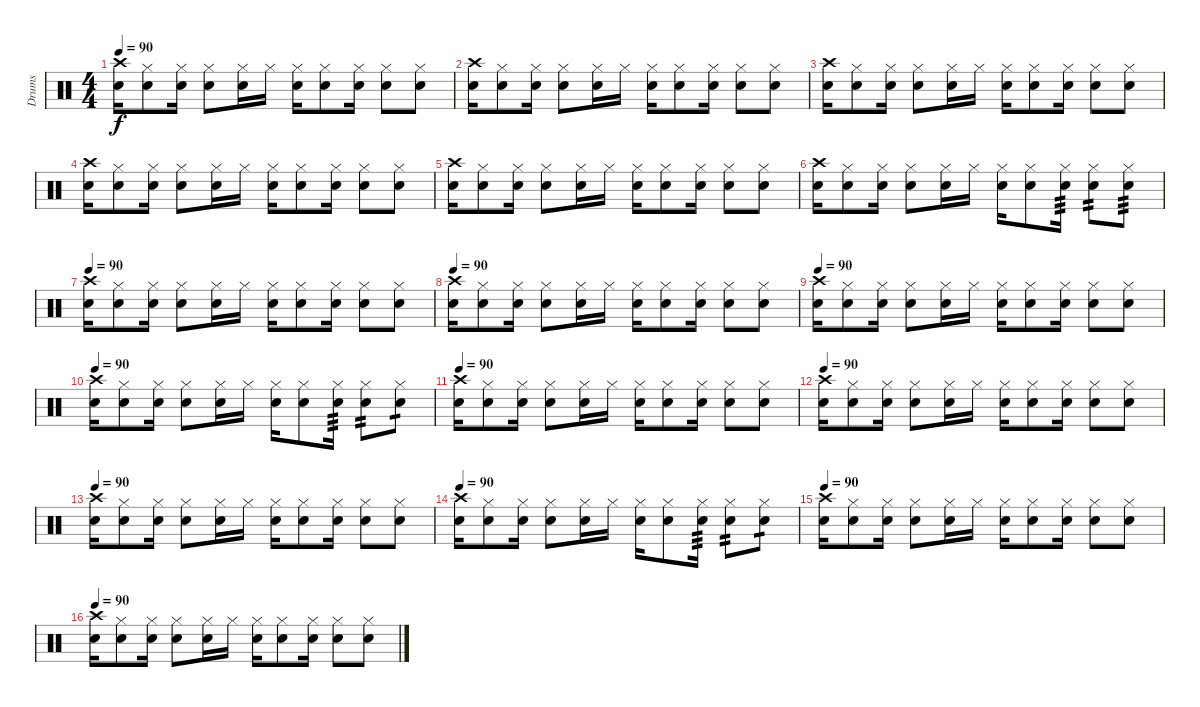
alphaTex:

\track ("Drums" "Drums") {instrument percussion}
\staff {score}
\articulation defaults
\ts (4 4)
\tempo 90
\clef neutral
\ks c
("Crash high (hit)" "Snare (hit) 2").16{dy f} ("Hi-Hat (closed)" "Snare (hit) 2").8 ("Hi-Hat (closed)" "Snare (hit) 2").16 ("Hi-Hat (closed)" "Snare (hit) 2").8 ("Hi-Hat (closed)" "Snare (hit) 2").16 "Hi-Hat (closed)".16 ("Hi-Hat (closed)" "Snare (hit) 2").16 ("Hi-Hat (closed)" "Snare (hit) 2").8 ("Hi-Hat (closed)" "Snare (hit) 2").16 ("Hi-Hat (closed)" "Snare (hit) 2").8 ("Hi-Hat (closed)" "Snare (hit) 2").8 |
("Crash high (hit)" "Snare (hit) 2").16 ("Hi-Hat (closed)" "Snare (hit) 2").8 ("Hi-Hat (closed)" "Snare (hit) 2").16 ("Hi-Hat (closed)" "Snare (hit) 2").8 ("Hi-Hat (closed)" "Snare (hit) 2").16 "Hi-Hat (closed)".16 ("Hi-Hat (closed)" "Snare (hit) 2").16 ("Hi-Hat (closed)" "Snare (hit) 2").8 ("Hi-Hat (closed)" "Snare (hit) 2").16 ("Hi-Hat (closed)" "Snare (hit) 2").8 ("Hi-Hat (closed)" "Snare (hit) 2").8 |
("Crash high (hit)" "Snare (hit) 2").16 ("Hi-Hat (closed)" "Snare (hit) 2").8 ("Hi-Hat (closed)" "Snare (hit) 2").16 ("Hi-Hat (closed)" "Snare (hit) 2").8 ("Hi-Hat (closed)" "Snare (hit) 2").16 "Hi-Hat (closed)".16 ("Hi-Hat (closed)" "Snare (hit) 2").16 ("Hi-Hat (closed)" "Snare (hit) 2").8 ("Hi-Hat (closed)" "Snare (hit) 2").16 ("Hi-Hat (closed)" "Snare (hit) 2").8 ("Hi-Hat (closed)" "Snare (hit) 2").8 |
("Crash high (hit)" "Snare (hit) 2").16 ("Hi-Hat (closed)" "Snare (hit) 2").8 ("Hi-Hat (closed)" "Snare (hit) 2").16 ("Hi-Hat (closed)" "Snare (hit) 2").8 ("Hi-Hat (closed)" "Snare (hit) 2").16 "Hi-Hat (closed)".16 ("Hi-Hat (closed)" "Snare (hit) 2").16 ("Hi-Hat (closed)" "Snare (hit) 2").8 ("Hi-Hat (closed)" "Snare (hit) 2").16 ("Hi-Hat (closed)" "Snare (hit) 2").8 ("Hi-Hat (closed)" "Snare (hit) 2").8 |
("Crash high (hit)" "Snare (hit) 2").16 ("Hi-Hat (closed)" "Snare (hit) 2").8 ("Hi-Hat (closed)" "Snare (hit) 2").16 ("Hi-Hat (closed)" "Snare (hit) 2").8 ("Hi-Hat (closed)" "Snare (hit) 2").16 "Hi-Hat (closed)".16 ("Hi-Hat (closed)" "Snare (hit) 2").16 ("Hi-Hat (closed)" "Snare (hit) 2").8 ("Hi-Hat (closed)" "Snare (hit) 2").16 ("Hi-Hat (closed)" "Snare (hit) 2").8 ("Hi-Hat (closed)" "Snare (hit) 2").8 |
("Crash high (hit)" "Snare (hit) 2").16 ("Hi-Hat (closed)" "Snare (hit) 2").8 ("Hi-Hat (closed)" "Snare (hit) 2").16 ("Hi-Hat (closed)" "Snare (hit) 2").8 ("Hi-Hat (closed)" "Snare (hit) 2").16 "Hi-Hat (closed)".16 ("Hi-Hat (closed)" "Snare (hit) 2").16 ("Hi-Hat (closed)" "Snare (hit) 2").8 ("Hi-Hat (closed)" "Snare (hit) 2").16{tp 3} ("Hi-Hat (closed)" "Snare (hit) 2").8{tp 2} ("Hi-Hat (closed)" "Snare (hit) 2").8{tp 3} |
\tempo 90
("Crash high (hit)" "Snare (hit) 2").16 ("Hi-Hat (closed)" "Snare (hit) 2").8 ("Hi-Hat (closed)" "Snare (hit) 2").16 ("Hi-Hat (closed)" "Snare (hit) 2").8 ("Hi-Hat (closed)" "Snare (hit) 2").16 "Hi-Hat (closed)".16 ("Hi-Hat (closed)" "Snare (hit) 2").16 ("Hi-Hat (closed)" "Snare (hit) 2").8 ("Hi-Hat (closed)" "Snare (hit) 2").16 ("Hi-Hat (closed)" "Snare (hit) 2").8 ("Hi-Hat (closed)" "Snare (hit) 2").8 |
\tempo 90
("Crash high (hit)" "Snare (hit) 2").16 ("Hi-Hat (closed)" "Snare (hit) 2").8 ("Hi-Hat (closed)" "Snare (hit) 2").16 ("Hi-Hat (closed)" "Snare (hit) 2").8 ("Hi-Hat (closed)" "Snare (hit) 2").16 "Hi-Hat (closed)".16 ("Hi-Hat (closed)" "Snare (hit) 2").16 ("Hi-Hat (closed)" "Snare (hit) 2").8 ("Hi-Hat (closed)" "Snare (hit) 2").16 ("Hi-Hat (closed)" "Snare (hit) 2").8 ("Hi-Hat (closed)" "Snare (hit) 2").8 |
\tempo 90
("Crash high (hit)" "Snare (hit) 2").16 ("Hi-Hat (closed)" "Snare (hit) 2").8 ("Hi-Hat (closed)" "Snare (hit) 2").16 ("Hi-Hat (closed)" "Snare (hit) 2").8 ("Hi-Hat (closed)" "Snare (hit) 2").16 "Hi-Hat (closed)".16 ("Hi-Hat (closed)" "Snare (hit) 2").16 ("Hi-Hat (closed)" "Snare (hit) 2").8 ("Hi-Hat (closed)" "Snare (hit) 2").16 ("Hi-Hat (closed)" "Snare (hit) 2").8 ("Hi-Hat (closed)" "Snare (hit) 2").8 |
\tempo 90
("Crash high (hit)" "Snare (hit) 2").16 ("Hi-Hat (closed)" "Snare (hit) 2").8 ("Hi-Hat (closed)" "Snare (hit) 2").16 ("Hi-Hat (closed)" "Snare (hit) 2").8 ("Hi-Hat (closed)" "Snare (hit) 2").16 "Hi-Hat (closed)".16 ("Hi-Hat (closed)" "Snare (hit) 2").16 ("Hi-Hat (closed)" "Snare (hit) 2").8 ("Hi-Hat (closed)" "Snare (hit) 2").16{tp 3} ("Hi-Hat (closed)" "Snare (hit) 2").8{tp 2} ("Hi-Hat (closed)" "Snare (hit) 2").8{tp 1} |
\tempo 90
("Crash high (hit)" "Snare (hit) 2").16 ("Hi-Hat (closed)" "Snare (hit) 2").8 ("Hi-Hat (closed)" "Snare (hit) 2").16 ("Hi-Hat (closed)" "Snare (hit) 2").8 ("Hi-Hat (closed)" "Snare (hit) 2").16 "Hi-Hat (closed)".16 ("Hi-Hat (closed)" "Snare (hit) 2").16 ("Hi-Hat (closed)" "Snare (hit) 2").8 ("Hi-Hat (closed)" "Snare (hit) 2").16 ("Hi-Hat (closed)" "Snare (hit) 2").8 ("Hi-Hat (closed)" "Snare (hit) 2").8 |
\tempo 90
("Crash high (hit)" "Snare (hit) 2").16 ("Hi-Hat (closed)" "Snare (hit) 2").8 ("Hi-Hat (closed)" "Snare (hit) 2").16 ("Hi-Hat (closed)" "Snare (hit) 2").8 ("Hi-Hat (closed)" "Snare (hit) 2").16 "Hi-Hat (closed)".16 ("Hi-Hat (closed)" "Snare (hit) 2").16 ("Hi-Hat (closed)" "Snare (hit) 2").8 ("Hi-Hat (closed)" "Snare (hit) 2").16 ("Hi-Hat (closed)" "Snare (hit) 2").8 ("Hi-Hat (closed)" "Snare (hit) 2").8 |
\tempo 90
("Crash high (hit)" "Snare (hit) 2").16 ("Hi-Hat (closed)" "Snare (hit) 2").8 ("Hi-Hat (closed)" "Snare (hit) 2").16 ("Hi-Hat (closed)" "Snare (hit) 2").8 ("Hi-Hat (closed)" "Snare (hit) 2").16 "Hi-Hat (closed)".16 ("Hi-Hat (closed)" "Snare (hit) 2").16 ("Hi-Hat (closed)" "Snare (hit) 2").8 ("Hi-Hat (closed)" "Snare (hit) 2").16 ("Hi-Hat (closed)" "Snare (hit) 2").8 ("Hi-Hat (closed)" "Snare (hit) 2").8 |
\tempo 90
("Crash high (hit)" "Snare (hit) 2").16 ("Hi-Hat (closed)" "Snare (hit) 2").8 ("Hi-Hat (closed)" "Snare (hit) 2").16 ("Hi-Hat (closed)" "Snare (hit) 2").8 ("Hi-Hat (closed)" "Snare (hit) 2").16 "Hi-Hat (closed)".16 ("Hi-Hat (closed)" "Snare (hit) 2").16 ("Hi-Hat (closed)" "Snare (hit) 2").8 ("Hi-Hat (closed)" "Snare (hit) 2").16{tp 3} ("Hi-Hat (closed)" "Snare (hit) 2").8{tp 2} ("Hi-Hat (closed)" "Snare (hit) 2").8{tp 1} |
\tempo 90
("Crash high (hit)" "Snare (hit) 2").16 ("Hi-Hat (closed)" "Snare (hit) 2").8 ("Hi-Hat (closed)" "Snare (hit) 2").16 ("Hi-Hat (closed)" "Snare (hit) 2").8 ("Hi-Hat (closed)" "Snare (hit) 2").16 "Hi-Hat (closed)".16 ("Hi-Hat (closed)" "Snare (hit) 2").16 ("Hi-Hat (closed)" "Snare (hit) 2").8 ("Hi-Hat (closed)" "Snare (hit) 2").16 ("Hi-Hat (closed)" "Snare (hit) 2").8 ("Hi-Hat (closed)" "Snare (hit) 2").8 |
\tempo 90
("Crash high (hit)" "Snare (hit) 2").16 ("Hi-Hat (closed)" "Snare (hit) 2").8 ("Hi-Hat (closed)" "Snare (hit) 2").16 ("Hi-Hat (closed)" "Snare (hit) 2").8 ("Hi-Hat (closed)" "Snare (hit) 2").16 "Hi-Hat (closed)".16 ("Hi-Hat (closed)" "Snare (hit) 2").16 ("Hi-Hat (closed)" "Snare (hit) 2").8 ("Hi-Hat (closed)" "Snare (hit) 2").16 ("Hi-Hat (closed)" "Snare (hit) 2").8 ("Hi-Hat (closed)" "Snare (hit) 2").8
